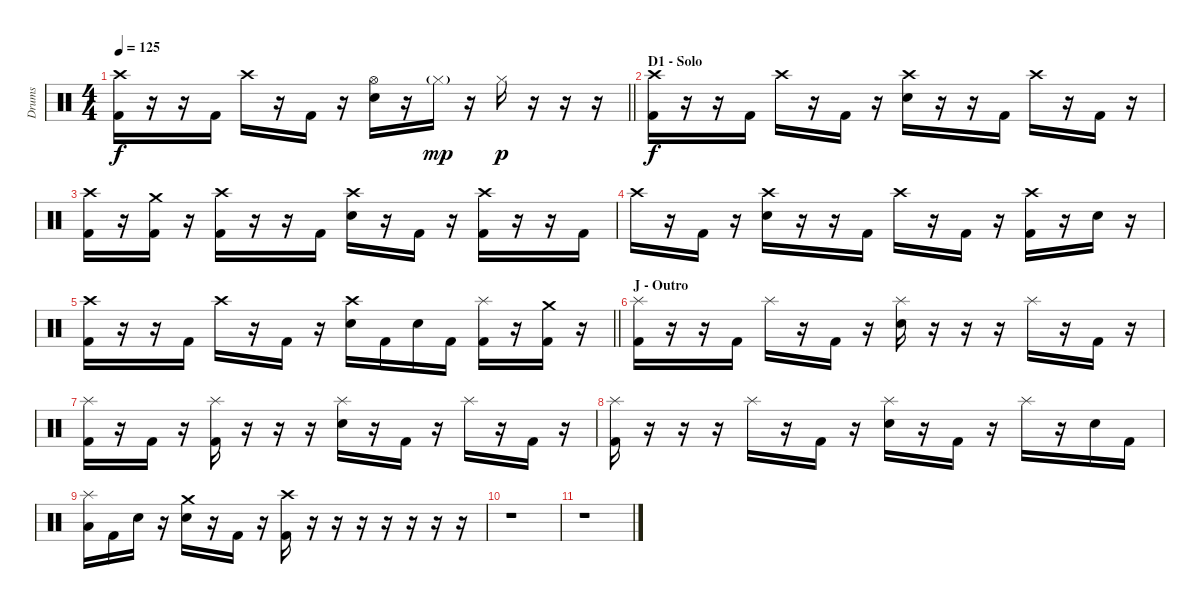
\track ("Drums" "Drums") {instrument percussion}
\staff {score}
\articulation defaults
\ts (4 4)
\tempo 125
\clef neutral
\barLineRight lightlight
\ks c
("Crash high (hit)" "Kick (hit) 2").16{dy f} r.16 r.16 "Kick (hit) 2".16 "Crash high (hit)".16 r.16 "Kick (hit) 2".16 r.16 ("Hi-Hat (open)" "Electric Snare (hit)").16 r.16 "Hi-Hat (closed)"{g}.16{dy mp} r.16 "Hi-Hat (closed)".16{dy p} r.16 r.16 r.16 |
\section ("" "D1 - Solo")
("Crash high (hit)" "Kick (hit) 2").16{dy f} r.16 r.16 "Kick (hit) 2".16 "Crash high (hit)".16 r.16 "Kick (hit) 2".16 r.16 ("Crash high (hit)" "Electric Snare (hit)").16 r.16 r.16 "Kick (hit) 2".16 "Crash high (hit)".16 r.16 "Kick (hit) 2".16 r.16 |
("Crash high (hit)" "Kick (hit) 2").16 r.16 ("Crash medium (hit)" "Kick (hit) 2").16 r.16 ("Crash high (hit)" "Kick (hit) 2").16 r.16 r.16 "Kick (hit) 2".16 ("Crash high (hit)" "Electric Snare (hit)").16 r.16 "Kick (hit) 2".16 r.16 ("Crash high (hit)" "Kick (hit) 2").16 r.16 r.16 "Kick (hit) 2".16 |
"Crash high (hit)".16 r.16 "Kick (hit) 2".16 r.16 ("Crash high (hit)" "Electric Snare (hit)").16 r.16 r.16 "Kick (hit) 2".16 "Crash high (hit)".16 r.16 "Kick (hit) 2".16 r.16 ("Crash high (hit)" "Kick (hit) 2").16 r.16 "Electric Snare (hit)".16 r.16 |
\barLineRight lightlight
("Crash high (hit)" "Kick (hit) 2").16 r.16 r.16 "Kick (hit) 2".16 "Crash high (hit)".16 r.16 "Kick (hit) 2".16 r.16 ("Crash high (hit)" "Electric Snare (hit)").16 "Kick (hit) 2".16 "Electric Snare (hit)".16 "Kick (hit) 2".16 ("Splash (hit)" "Kick (hit) 2").16 r.16 ("Crash medium (hit)" "Kick (hit) 2").16 r.16 |
\section ("" "J - Outro")
("Splash (hit)" "Kick (hit) 2").16 r.16 r.16 "Kick (hit) 2".16 "Splash (hit)".16 r.16 "Kick (hit) 2".16 r.16 ("Splash (hit)" "Electric Snare (hit)").16 r.16 r.16 r.16 "Splash (hit)".16 r.16 "Kick (hit) 2".16 r.16 |
("Splash (hit)" "Kick (hit) 2").16 r.16 "Kick (hit) 2".16 r.16 ("Splash (hit)" "Kick (hit) 2").16 r.16 r.16 r.16 ("Splash (hit)" "Electric Snare (hit)").16 r.16 "Kick (hit) 2".16 r.16 "Splash (hit)".16 r.16 "Kick (hit) 2".16 r.16 |
("Splash (hit)" "Kick (hit) 2").16 r.16 r.16 r.16 "Splash (hit)".16 r.16 "Kick (hit) 2".16 r.16 ("Splash (hit)" "Electric Snare (hit)").16 r.16 "Kick (hit) 2".16 r.16 "Splash (hit)".16 r.16 "Electric Snare (hit)".16 "Kick (hit) 2".16 |
("Splash (hit)" "Low Tom (hit)").16 "Kick (hit) 2".16 "Electric Snare (hit)".16 r.16 ("Crash medium (hit)" "Electric Snare (hit)").16 r.16 "Kick (hit) 2".16 r.16 ("Crash high (hit)" "Kick (hit) 2").16 r.16 r.16 r.16 r.16 r.16 r.16 r.16 |
r.1 |
r.1
